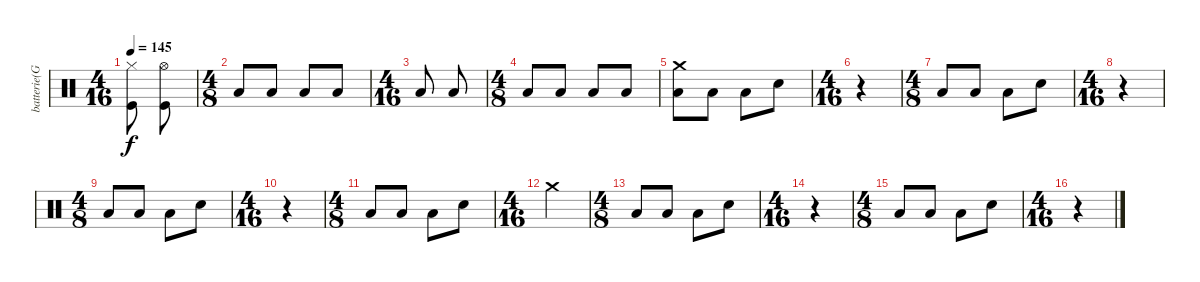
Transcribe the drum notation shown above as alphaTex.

\track ("batterie(Granberg)" "batterie(G") {instrument percussion}
\staff {score}
\articulation defaults
\ts (4 16)
\tempo 145
\clef neutral
\ks c
("Hi-Hat (closed)" "Kick (hit)").8{dy f} ("Hi-Hat (open)" "Kick (hit)").8 |
\ts (4 8)
"Low Floor Tom (hit)".8 "Low Floor Tom (hit)".8 "Low Floor Tom (hit)".8 "Low Floor Tom (hit)".8 |
\ts (4 16)
"Low Floor Tom (hit)".8 "Low Floor Tom (hit)".8 |
\ts (4 8)
"Low Floor Tom (hit)".8 "Low Floor Tom (hit)".8 "Low Floor Tom (hit)".8 "Low Floor Tom (hit)".8 |
("Crash medium (hit)" "Low Floor Tom (hit)").8 "Low Floor Tom (hit)".8 "Low Floor Tom (hit)".8 "Snare (hit) 2".8 |
\ts (4 16)
r.4 |
\ts (4 8)
"Low Floor Tom (hit)".8 "Low Floor Tom (hit)".8 "Low Floor Tom (hit)".8 "Snare (hit) 2".8 |
\ts (4 16)
r.4 |
\ts (4 8)
"Low Floor Tom (hit)".8 "Low Floor Tom (hit)".8 "Low Floor Tom (hit)".8 "Snare (hit) 2".8 |
\ts (4 16)
r.4 |
\ts (4 8)
"Low Floor Tom (hit)".8 "Low Floor Tom (hit)".8 "Low Floor Tom (hit)".8 "Snare (hit) 2".8 |
\ts (4 16)
"Crash medium (hit)".4 |
\ts (4 8)
"Low Floor Tom (hit)".8 "Low Floor Tom (hit)".8 "Low Floor Tom (hit)".8 "Snare (hit) 2".8 |
\ts (4 16)
r.4 |
\ts (4 8)
"Low Floor Tom (hit)".8 "Low Floor Tom (hit)".8 "Low Floor Tom (hit)".8 "Snare (hit) 2".8 |
\ts (4 16)
r.4
